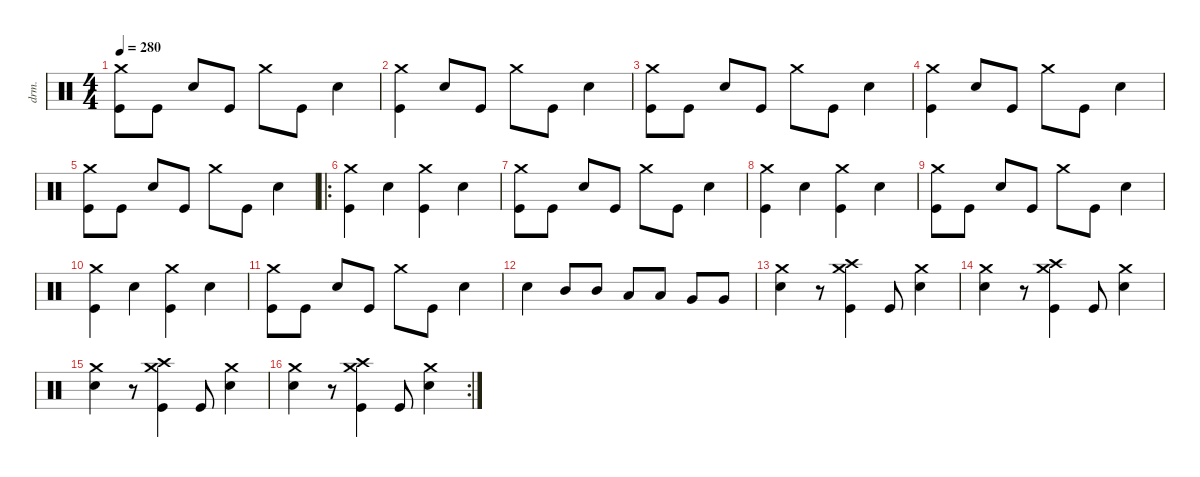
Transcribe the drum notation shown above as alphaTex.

\defaultSystemsLayout 4
\hideDynamics
\bracketExtendMode nobrackets
\otherSystemsTrackNameOrientation horizontal
\track ("Nick Menza" "drm.") {defaultSystemsLayout 4 instrument percussion}
\staff {score}
\articulation defaults
\ts (4 4)
\tempo 280
\clef neutral
\ks c
("Crash medium (hit)" "Kick (hit)").8{dy f beam Down} "Kick (hit)".8{beam Down} "Snare (hit) 2".8{beam Up} "Kick (hit)".8{beam Up} "Crash medium (hit)".8{beam Down} "Kick (hit)".8{beam Down} "Snare (hit) 2".4{beam Down} |
("Crash medium (hit)" "Kick (hit)").4{beam Down} "Snare (hit) 2".8{beam Up} "Kick (hit)".8{beam Up} "Crash medium (hit)".8{beam Down} "Kick (hit)".8{beam Down} "Snare (hit) 2".4{beam Down} |
("Crash medium (hit)" "Kick (hit)").8{beam Down} "Kick (hit)".8{beam Down} "Snare (hit) 2".8{beam Up} "Kick (hit)".8{beam Up} "Crash medium (hit)".8{beam Down} "Kick (hit)".8{beam Down} "Snare (hit) 2".4{beam Down} |
("Crash medium (hit)" "Kick (hit)").4{beam Down} "Snare (hit) 2".8{beam Up} "Kick (hit)".8{beam Up} "Crash medium (hit)".8{beam Down} "Kick (hit)".8{beam Down} "Snare (hit) 2".4{beam Down} |
("Crash medium (hit)" "Kick (hit)").8{beam Down} "Kick (hit)".8{beam Down} "Snare (hit) 2".8{beam Up} "Kick (hit)".8{beam Up} "Crash medium (hit)".8{beam Down} "Kick (hit)".8{beam Down} "Snare (hit) 2".4{beam Down} |
\ro
("Crash medium (hit)" "Kick (hit)").4{beam Down} "Snare (hit) 2".4{beam Down} ("Crash medium (hit)" "Kick (hit)").4{beam Down} "Snare (hit) 2".4{beam Down} |
("Crash medium (hit)" "Kick (hit)").8{beam Down} "Kick (hit)".8{beam Down} "Snare (hit) 2".8{beam Up} "Kick (hit)".8{beam Up} "Crash medium (hit)".8{beam Down} "Kick (hit)".8{beam Down} "Snare (hit) 2".4{beam Down} |
("Crash medium (hit)" "Kick (hit)").4{beam Down} "Snare (hit) 2".4{beam Down} ("Crash medium (hit)" "Kick (hit)").4{beam Down} "Snare (hit) 2".4{beam Down} |
("Crash medium (hit)" "Kick (hit)").8{beam Down} "Kick (hit)".8{beam Down} "Snare (hit) 2".8{beam Up} "Kick (hit)".8{beam Up} "Crash medium (hit)".8{beam Down} "Kick (hit)".8{beam Down} "Snare (hit) 2".4{beam Down} |
("Crash medium (hit)" "Kick (hit)").4{beam Down} "Snare (hit) 2".4{beam Down} ("Crash medium (hit)" "Kick (hit)").4{beam Down} "Snare (hit) 2".4{beam Down} |
("Crash medium (hit)" "Kick (hit)").8{beam Down} "Kick (hit)".8{beam Down} "Snare (hit) 2".8{beam Up} "Kick (hit)".8{beam Up} "Crash medium (hit)".8{beam Down} "Kick (hit)".8{beam Down} "Snare (hit) 2".4{beam Down} |
"Snare (hit) 2".4{beam Down} "Mid Tom (hit)".8{beam Up} "Mid Tom (hit)".8{beam Up} "Low Tom (hit)".8{beam Up} "Low Tom (hit)".8{beam Up} "Very Low Tom (hit)".8{beam Up} "Very Low Tom (hit)".8{beam Up} |
("Crash medium (hit)" "Snare (hit) 2").4{beam Down} r.8{beam Down} ("Crash high (hit)" "Crash medium (hit)" "Kick (hit)").4{dy mp beam Down} "Kick (hit)".8{dy f beam Up} ("Crash medium (hit)" "Snare (hit) 2").4{beam Down} |
("Crash medium (hit)" "Snare (hit) 2").4{beam Down} r.8{beam Down} ("Crash high (hit)" "Crash medium (hit)" "Kick (hit)").4{dy mp beam Down} "Kick (hit)".8{dy f beam Up} ("Crash medium (hit)" "Snare (hit) 2").4{beam Down} |
("Crash medium (hit)" "Snare (hit) 2").4{beam Down} r.8{beam Down} ("Crash high (hit)" "Crash medium (hit)" "Kick (hit)").4{dy mp beam Down} "Kick (hit)".8{dy f beam Up} ("Crash medium (hit)" "Snare (hit) 2").4{beam Down} |
\rc 2
("Crash medium (hit)" "Snare (hit) 2").4{beam Down} r.8{beam Down} ("Crash high (hit)" "Crash medium (hit)" "Kick (hit)").4{dy mp beam Down} "Kick (hit)".8{dy f beam Up} ("Crash medium (hit)" "Snare (hit) 2").4{beam Down}
